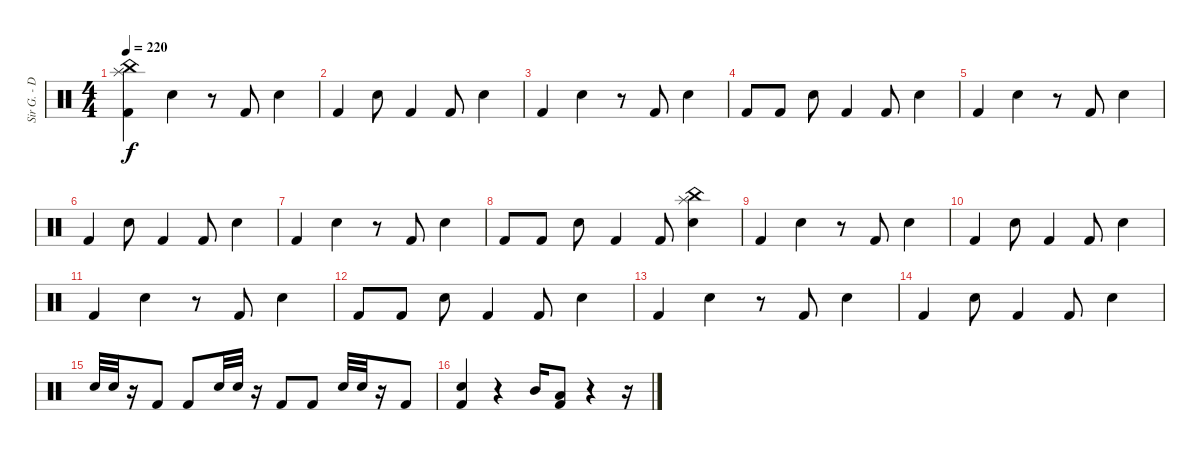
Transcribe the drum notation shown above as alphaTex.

\track ("Sir G. - Drums" "Sir G. - D") {instrument percussion}
\staff {score}
\articulation defaults
\ts (4 4)
\tempo 220
\clef neutral
\ks c
("China (hit)" "Splash (hit)" "Kick (hit) 2").4{dy f} "Snare (hit) 2".4 r.8 "Kick (hit) 2".8 "Snare (hit) 2".4 |
"Kick (hit) 2".4 "Snare (hit) 2".8 "Kick (hit) 2".4 "Kick (hit) 2".8 "Snare (hit) 2".4 |
"Kick (hit) 2".4 "Snare (hit) 2".4 r.8 "Kick (hit) 2".8 "Snare (hit) 2".4 |
"Kick (hit) 2".8 "Kick (hit) 2".8 "Snare (hit) 2".8 "Kick (hit) 2".4 "Kick (hit) 2".8 "Snare (hit) 2".4 |
"Kick (hit) 2".4 "Snare (hit) 2".4 r.8 "Kick (hit) 2".8 "Snare (hit) 2".4 |
"Kick (hit) 2".4 "Snare (hit) 2".8 "Kick (hit) 2".4 "Kick (hit) 2".8 "Snare (hit) 2".4 |
"Kick (hit) 2".4 "Snare (hit) 2".4 r.8 "Kick (hit) 2".8 "Snare (hit) 2".4 |
"Kick (hit) 2".8 "Kick (hit) 2".8 "Snare (hit) 2".8 "Kick (hit) 2".4 "Kick (hit) 2".8 ("China (hit)" "Splash (hit)" "Snare (hit) 2").4 |
"Kick (hit) 2".4 "Snare (hit) 2".4 r.8 "Kick (hit) 2".8 "Snare (hit) 2".4 |
"Kick (hit) 2".4 "Snare (hit) 2".8 "Kick (hit) 2".4 "Kick (hit) 2".8 "Snare (hit) 2".4 |
"Kick (hit) 2".4 "Snare (hit) 2".4 r.8 "Kick (hit) 2".8 "Snare (hit) 2".4 |
"Kick (hit) 2".8 "Kick (hit) 2".8 "Snare (hit) 2".8 "Kick (hit) 2".4 "Kick (hit) 2".8 "Snare (hit) 2".4 |
"Kick (hit) 2".4 "Snare (hit) 2".4 r.8 "Kick (hit) 2".8 "Snare (hit) 2".4 |
"Kick (hit) 2".4 "Snare (hit) 2".8 "Kick (hit) 2".4 "Kick (hit) 2".8 "Snare (hit) 2".4 |
"Snare (hit) 2".32 "Snare (hit) 2".32 r.16 "Kick (hit) 2".8 "Kick (hit) 2".8 "Snare (hit) 2".32 "Snare (hit) 2".32 r.16 "Kick (hit) 2".8 "Kick (hit) 2".8 "Snare (hit) 2".32 "Snare (hit) 2".32 r.16 "Kick (hit) 2".8 |
("Kick (hit) 2" "Snare (hit) 2").4 r.4 "Mid Tom (hit)".16 ("Low Floor Tom (hit)" "Kick (hit) 2").8 r.4 r.16
